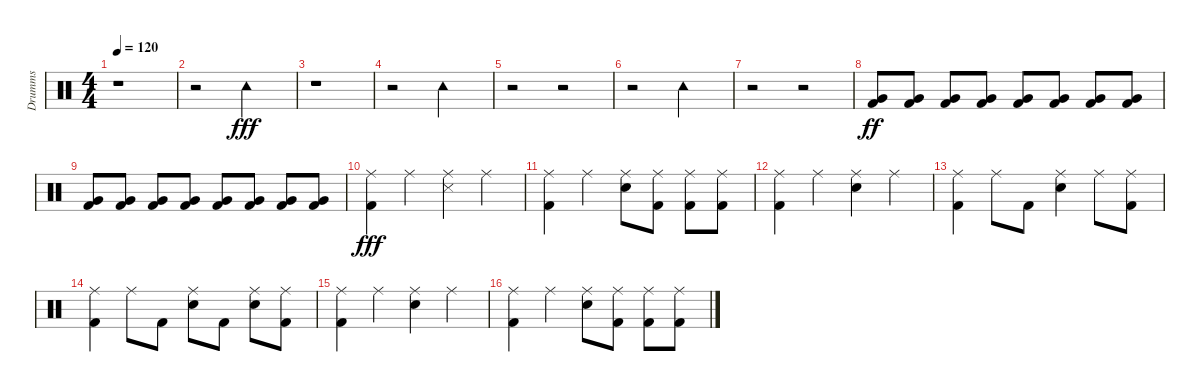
\track ("Drumms" "Drumms") {instrument percussion}
\staff {score}
\articulation defaults
\ts (4 4)
\tempo 120
\clef neutral
\ks c
r.1{dy fff} |
r.2 "Tambourine (hit)".2 |
r.1 |
r.2 "Tambourine (hit)".2 |
r.2 r.2 |
r.2 "Tambourine (hit)".2 |
r.2 r.2 |
\section ("" "")
("Kick (hit) 2" "Very Low Tom (hit)").8{dy ff} ("Kick (hit) 2" "Very Low Tom (hit)").8 ("Kick (hit) 2" "Very Low Tom (hit)").8 ("Kick (hit) 2" "Very Low Tom (hit)").8 ("Kick (hit) 2" "Very Low Tom (hit)").8 ("Kick (hit) 2" "Very Low Tom (hit)").8 ("Kick (hit) 2" "Very Low Tom (hit)").8 ("Kick (hit) 2" "Very Low Tom (hit)").8 |
("Kick (hit) 2" "Very Low Tom (hit)").8 ("Kick (hit) 2" "Very Low Tom (hit)").8 ("Kick (hit) 2" "Very Low Tom (hit)").8 ("Kick (hit) 2" "Very Low Tom (hit)").8 ("Kick (hit) 2" "Very Low Tom (hit)").8 ("Kick (hit) 2" "Very Low Tom (hit)").8 ("Kick (hit) 2" "Very Low Tom (hit)").8 ("Kick (hit) 2" "Very Low Tom (hit)").8 |
("Kick (hit) 2" "Ride (middle)").4{dy fff} "Ride (middle)".4 ("Ride (middle)" "Metronome (hit)").4 "Ride (middle)".4 |
("Ride (middle)" "Kick (hit) 2").4 "Ride (middle)".4 ("Ride (middle)" "Snare (hit) 2").8 ("Ride (middle)" "Kick (hit) 2").8 ("Ride (middle)" "Kick (hit) 2").8 ("Ride (middle)" "Kick (hit) 2").8 |
("Ride (middle)" "Kick (hit) 2").4 "Ride (middle)".4 ("Ride (middle)" "Snare (hit) 2").4 "Ride (middle)".4 |
("Ride (middle)" "Kick (hit) 2").4 "Ride (middle)".8 "Kick (hit) 2".8 ("Ride (middle)" "Snare (hit) 2").4 "Ride (middle)".8 ("Ride (middle)" "Kick (hit) 2").8 |
("Ride (middle)" "Kick (hit) 2").4 "Ride (middle)".8 "Kick (hit) 2".8 ("Ride (middle)" "Snare (hit) 2").8 "Kick (hit) 2".8 ("Ride (middle)" "Snare (hit) 2").8 ("Ride (middle)" "Kick (hit) 2").8 |
("Ride (middle)" "Kick (hit) 2").4 "Ride (middle)".4 ("Ride (middle)" "Snare (hit) 2").4 "Ride (middle)".4 |
("Ride (middle)" "Kick (hit) 2").4 "Ride (middle)".4 ("Ride (middle)" "Snare (hit) 2").8 ("Ride (middle)" "Kick (hit) 2").8 ("Ride (middle)" "Kick (hit) 2").8 ("Ride (middle)" "Kick (hit) 2").8
